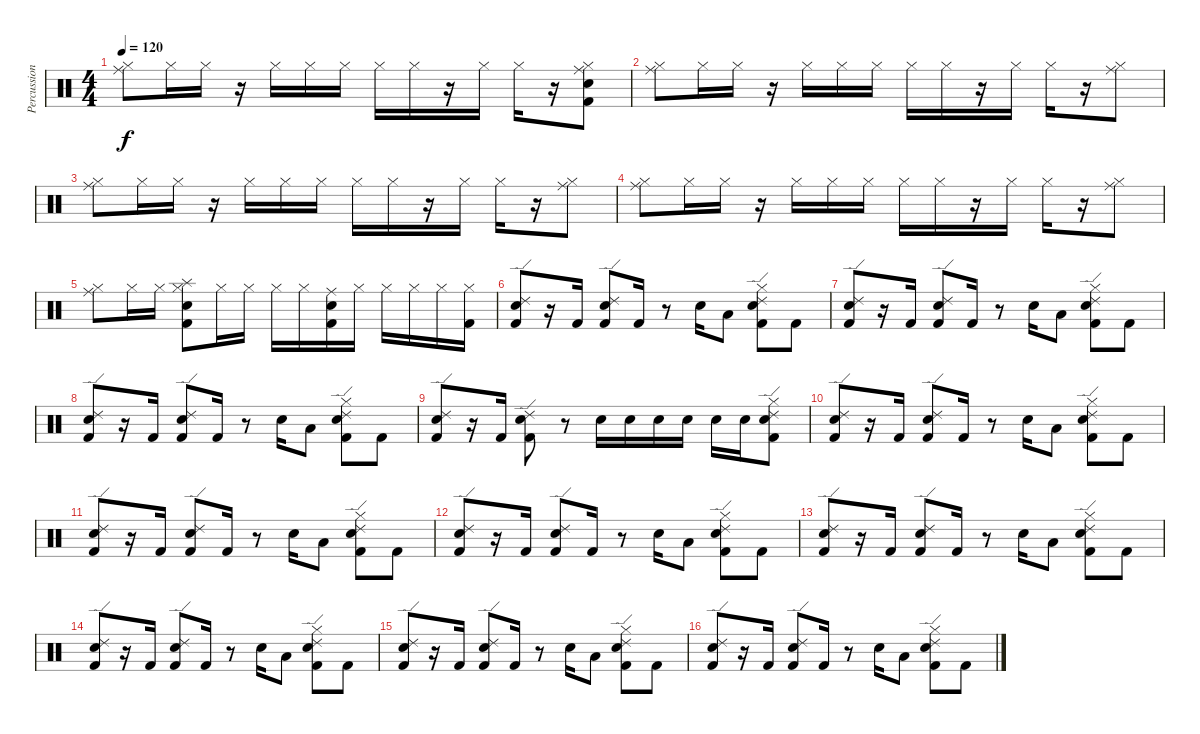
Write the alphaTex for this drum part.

\track ("Percussions" "Percussion") {instrument percussion}
\staff {score}
\articulation defaults
\ts (4 4)
\tempo 120
\clef neutral
\ks c
("Ride (middle)" "Hi-Hat (closed)").8{dy f} "Hi-Hat (closed)".16 "Hi-Hat (closed)".16 r.16 "Hi-Hat (closed)".16 "Hi-Hat (closed)".16 "Hi-Hat (closed)".16 "Hi-Hat (closed)".16 "Hi-Hat (closed)".16 r.16 "Hi-Hat (closed)".16 "Hi-Hat (closed)".16 r.16 ("Ride (middle)" "Hi-Hat (closed)" "Electric Snare (hit)" "Kick (hit) 2").8 |
("Ride (middle)" "Hi-Hat (closed)").8 "Hi-Hat (closed)".16 "Hi-Hat (closed)".16 r.16 "Hi-Hat (closed)".16 "Hi-Hat (closed)".16 "Hi-Hat (closed)".16 "Hi-Hat (closed)".16 "Hi-Hat (closed)".16 r.16 "Hi-Hat (closed)".16 "Hi-Hat (closed)".16 r.16 ("Ride (middle)" "Hi-Hat (closed)").8 |
("Ride (middle)" "Hi-Hat (closed)").8 "Hi-Hat (closed)".16 "Hi-Hat (closed)".16 r.16 "Hi-Hat (closed)".16 "Hi-Hat (closed)".16 "Hi-Hat (closed)".16 "Hi-Hat (closed)".16 "Hi-Hat (closed)".16 r.16 "Hi-Hat (closed)".16 "Hi-Hat (closed)".16 r.16 ("Ride (middle)" "Hi-Hat (closed)").8 |
("Ride (middle)" "Hi-Hat (closed)").8 "Hi-Hat (closed)".16 "Hi-Hat (closed)".16 r.16 "Hi-Hat (closed)".16 "Hi-Hat (closed)".16 "Hi-Hat (closed)".16 "Hi-Hat (closed)".16 "Hi-Hat (closed)".16 r.16 "Hi-Hat (closed)".16 "Hi-Hat (closed)".16 r.16 ("Ride (middle)" "Hi-Hat (closed)").8 |
("Ride (middle)" "Hi-Hat (closed)").8 "Hi-Hat (closed)".16 "Hi-Hat (closed)".16 ("Splash (hit)" "Hi-Hat (closed)" "Electric Snare (hit)" "Kick (hit) 2").8 "Hi-Hat (closed)".16 "Hi-Hat (closed)".16 "Hi-Hat (closed)".16 "Hi-Hat (closed)".16 ("Ride (middle)" "Electric Snare (hit)" "Kick (hit) 2").16 "Hi-Hat (closed)".16 "Hi-Hat (closed)".16 "Hi-Hat (closed)".16 "Hi-Hat (closed)".16 ("Hi-Hat (closed)" "Kick (hit) 2").16 |
("Ride (edge) 2" "Electric Snare (hit)" "Kick (hit) 2").8 r.16 "Kick (hit) 2".16 ("Ride (edge) 2" "Electric Snare (hit)" "Kick (hit) 2").8 "Kick (hit) 2".16 r.8 "Electric Snare (hit)".16 "Low Floor Tom (hit)".8 ("Ride (edge) 2" "Hi-Hat (closed)" "Electric Snare (hit)" "Kick (hit) 2").8 "Kick (hit) 2".8 |
("Ride (edge) 2" "Electric Snare (hit)" "Kick (hit) 2").8 r.16 "Kick (hit) 2".16 ("Ride (edge) 2" "Electric Snare (hit)" "Kick (hit) 2").8 "Kick (hit) 2".16 r.8 "Electric Snare (hit)".16 "Low Floor Tom (hit)".8 ("Ride (edge) 2" "Hi-Hat (closed)" "Electric Snare (hit)" "Kick (hit) 2").8 "Kick (hit) 2".8 |
("Ride (edge) 2" "Electric Snare (hit)" "Kick (hit) 2").8 r.16 "Kick (hit) 2".16 ("Ride (edge) 2" "Electric Snare (hit)" "Kick (hit) 2").8 "Kick (hit) 2".16 r.8 "Electric Snare (hit)".16 "Low Floor Tom (hit)".8 ("Ride (edge) 2" "Hi-Hat (closed)" "Electric Snare (hit)" "Kick (hit) 2").8 "Kick (hit) 2".8 |
("Ride (edge) 2" "Electric Snare (hit)" "Kick (hit) 2").8 r.16 "Kick (hit) 2".16 ("Ride (edge) 2" "Electric Snare (hit)" "Kick (hit) 2").8 r.8 "Electric Snare (hit)".16 "Electric Snare (hit)".16 "Electric Snare (hit)".16 "Electric Snare (hit)".16 "Electric Snare (hit)".16 "Electric Snare (hit)".16 ("Ride (edge) 2" "Hi-Hat (closed)" "Electric Snare (hit)" "Kick (hit) 2").8 |
("Ride (edge) 2" "Electric Snare (hit)" "Kick (hit) 2").8 r.16 "Kick (hit) 2".16 ("Ride (edge) 2" "Electric Snare (hit)" "Kick (hit) 2").8 "Kick (hit) 2".16 r.8 "Electric Snare (hit)".16 "Low Floor Tom (hit)".8 ("Ride (edge) 2" "Hi-Hat (closed)" "Electric Snare (hit)" "Kick (hit) 2").8 "Kick (hit) 2".8 |
("Ride (edge) 2" "Electric Snare (hit)" "Kick (hit) 2").8 r.16 "Kick (hit) 2".16 ("Ride (edge) 2" "Electric Snare (hit)" "Kick (hit) 2").8 "Kick (hit) 2".16 r.8 "Electric Snare (hit)".16 "Low Floor Tom (hit)".8 ("Ride (edge) 2" "Hi-Hat (closed)" "Electric Snare (hit)" "Kick (hit) 2").8 "Kick (hit) 2".8 |
("Ride (edge) 2" "Electric Snare (hit)" "Kick (hit) 2").8 r.16 "Kick (hit) 2".16 ("Ride (edge) 2" "Electric Snare (hit)" "Kick (hit) 2").8 "Kick (hit) 2".16 r.8 "Electric Snare (hit)".16 "Low Floor Tom (hit)".8 ("Ride (edge) 2" "Hi-Hat (closed)" "Electric Snare (hit)" "Kick (hit) 2").8 "Kick (hit) 2".8 |
("Ride (edge) 2" "Electric Snare (hit)" "Kick (hit) 2").8 r.16 "Kick (hit) 2".16 ("Ride (edge) 2" "Electric Snare (hit)" "Kick (hit) 2").8 "Kick (hit) 2".16 r.8 "Electric Snare (hit)".16 "Low Floor Tom (hit)".8 ("Ride (edge) 2" "Hi-Hat (closed)" "Electric Snare (hit)" "Kick (hit) 2").8 "Kick (hit) 2".8 |
("Ride (edge) 2" "Electric Snare (hit)" "Kick (hit) 2").8 r.16 "Kick (hit) 2".16 ("Ride (edge) 2" "Electric Snare (hit)" "Kick (hit) 2").8 "Kick (hit) 2".16 r.8 "Electric Snare (hit)".16 "Low Floor Tom (hit)".8 ("Ride (edge) 2" "Hi-Hat (closed)" "Electric Snare (hit)" "Kick (hit) 2").8 "Kick (hit) 2".8 |
("Ride (edge) 2" "Electric Snare (hit)" "Kick (hit) 2").8 r.16 "Kick (hit) 2".16 ("Ride (edge) 2" "Electric Snare (hit)" "Kick (hit) 2").8 "Kick (hit) 2".16 r.8 "Electric Snare (hit)".16 "Low Floor Tom (hit)".8 ("Ride (edge) 2" "Hi-Hat (closed)" "Electric Snare (hit)" "Kick (hit) 2").8 "Kick (hit) 2".8 |
("Ride (edge) 2" "Electric Snare (hit)" "Kick (hit) 2").8 r.16 "Kick (hit) 2".16 ("Ride (edge) 2" "Electric Snare (hit)" "Kick (hit) 2").8 "Kick (hit) 2".16 r.8 "Electric Snare (hit)".16 "Low Floor Tom (hit)".8 ("Ride (edge) 2" "Hi-Hat (closed)" "Electric Snare (hit)" "Kick (hit) 2").8 "Kick (hit) 2".8
